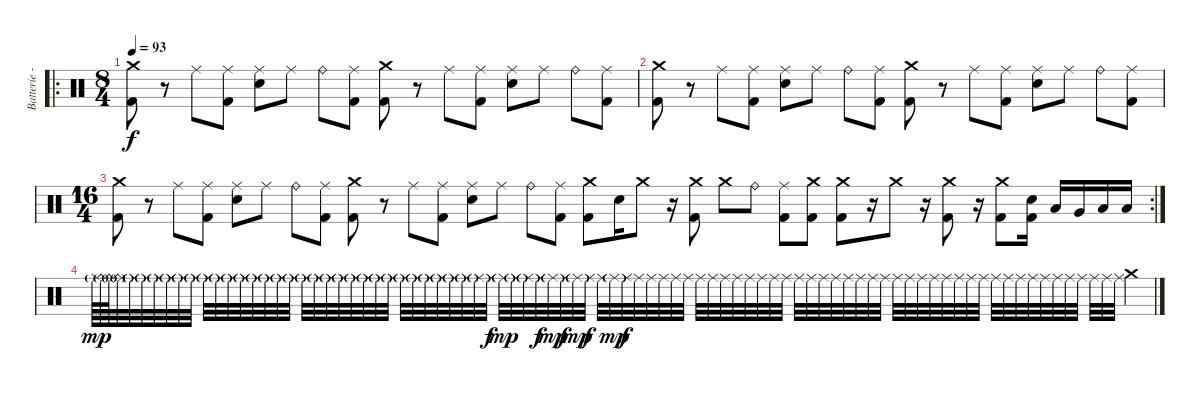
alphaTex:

\track ("Batterie - " "Batterie -") {instrument percussion}
\staff {score}
\articulation defaults
\ro
\ts (8 4)
\tempo 93
\clef neutral
\ks c
("Kick (hit) 2" "Crash medium (hit)").8{dy f} r.8 "Ride (middle)".8 ("Kick (hit) 2" "Ride (middle)").8 ("Electric Snare (hit)" "Ride (middle)").8 "Ride (middle)".8 "Ride (bell)".8 ("Kick (hit) 2" "Ride (middle)").8 ("Kick (hit) 2" "Crash medium (hit)").8 r.8 "Ride (middle)".8 ("Kick (hit) 2" "Ride (middle)").8 ("Electric Snare (hit)" "Ride (middle)").8 "Ride (middle)".8 "Ride (bell)".8 ("Kick (hit) 2" "Ride (middle)").8 |
("Kick (hit) 2" "Crash medium (hit)").8 r.8 "Ride (middle)".8 ("Kick (hit) 2" "Ride (middle)").8 ("Electric Snare (hit)" "Ride (middle)").8 "Ride (middle)".8 "Ride (bell)".8 ("Kick (hit) 2" "Ride (middle)").8 ("Kick (hit) 2" "Crash medium (hit)").8 r.8 "Ride (middle)".8 ("Kick (hit) 2" "Ride (middle)").8 ("Electric Snare (hit)" "Ride (middle)").8 "Ride (middle)".8 "Ride (bell)".8 ("Kick (hit) 2" "Ride (middle)").8 |
\rc 2
\ts (16 4)
("Kick (hit) 2" "Crash medium (hit)").8 r.8 "Ride (middle)".8 ("Kick (hit) 2" "Ride (middle)").8 ("Electric Snare (hit)" "Ride (middle)").8 "Ride (middle)".8 "Ride (bell)".8 ("Kick (hit) 2" "Ride (middle)").8 ("Kick (hit) 2" "Crash medium (hit)").8 r.8 "Ride (middle)".8 ("Kick (hit) 2" "Ride (middle)").8 ("Electric Snare (hit)" "Ride (middle)").8 "Ride (middle)".8 "Ride (bell)".8 ("Kick (hit) 2" "Ride (middle)").8 ("Kick (hit) 2" "Crash medium (hit)").8 "Snare (hit)".16 "Crash medium (hit)".8 r.16 ("Kick (hit) 2" "Crash medium (hit)").8 "Crash medium (hit)".8 "Ride (bell)".8 ("Kick (hit) 2" "Ride (middle)").8 ("Kick (hit) 2" "Crash medium (hit)").8 ("Kick (hit) 2" "Crash medium (hit)").8 r.16 "Crash medium (hit)".8 r.16 ("Crash medium (hit)" "Kick (hit) 2").8 r.16 ("Kick (hit) 2" "Crash medium (hit)").8 ("Kick (hit) 2" "Electric Snare (hit)").16 "Low Tom (hit)".16 "Very Low Tom (hit)".16 "Low Tom (hit)".16 "Low Floor Tom (hit)".16 |
"Ride (middle)"{g}.64{dy mp} "Ride (middle)"{g}.64 "Ride (middle)"{g}.64 "Ride (middle)"{g}.32 "Ride (middle)"{g}.32 "Ride (middle)"{g}.32 "Ride (middle)"{g}.32 "Ride (middle)"{g}.32 "Ride (middle)"{g}.32 "Ride (middle)"{g}.32 "Ride (middle)"{g}.32 "Ride (middle)"{g}.32 "Ride (middle)"{g}.32 "Ride (middle)"{g}.32 "Ride (middle)"{g}.32 "Ride (middle)"{g}.32 "Ride (middle)"{g}.32 "Ride (middle)"{g}.32 "Ride (middle)"{g}.32 "Ride (middle)"{g}.32 "Ride (middle)"{g}.32 "Ride (middle)"{g}.32 "Ride (middle)"{g}.32 "Ride (middle)"{g}.32 "Ride (middle)"{g}.32 "Ride (middle)"{g}.32 "Ride (middle)"{g}.32 "Ride (middle)"{g}.32 "Ride (middle)"{g}.32 "Ride (middle)"{g}.32 "Ride (middle)"{g}.32 "Ride (middle)"{g}.32 "Ride (middle)"{g}.32 "Ride (middle)".32{dy f} "Ride (middle)"{g}.32{dy mp} "Ride (middle)"{g}.32 "Ride (middle)"{g}.32 "Ride (middle)".32{dy f} "Ride (middle)"{g}.32{dy mp} "Ride (middle)".32{dy f} "Ride (middle)"{g}.32{dy mp} "Ride (middle)".32{dy f} "Ride (middle)".32 "Ride (middle)"{g}.32{dy mp} "Ride (middle)".32{dy f} "Ride (middle)".32 "Ride (middle)".32 "Ride (middle)".32 "Ride (middle)".32 "Ride (middle)".32 "Ride (middle)".32 "Ride (middle)".32 "Ride (middle)".32 "Ride (middle)".32 "Ride (middle)".32 "Ride (middle)".32 "Ride (middle)".32 "Ride (middle)".32 "Ride (middle)".32 "Ride (middle)".32 "Ride (middle)".32 "Ride (middle)".32 "Ride (middle)".32 "Ride (middle)".32 "Ride (middle)".32 "Ride (middle)".32 "Ride (middle)".32 "Ride (middle)".32 "Ride (middle)".32 "Ride (middle)".32 "Ride (middle)".32 "Ride (middle)".32 "Ride (middle)".32 "Ride (middle)".32 "Ride (middle)".32 "Ride (middle)".32 "Ride (middle)".32 "Ride (middle)".32 "Ride (middle)".32 "Ride (middle)".32 "Ride (middle)".32 "Ride (middle)".32 "Ride (middle)".32 "Ride (middle)".32 "Ride (middle)".32 "Crash medium (hit)".4
